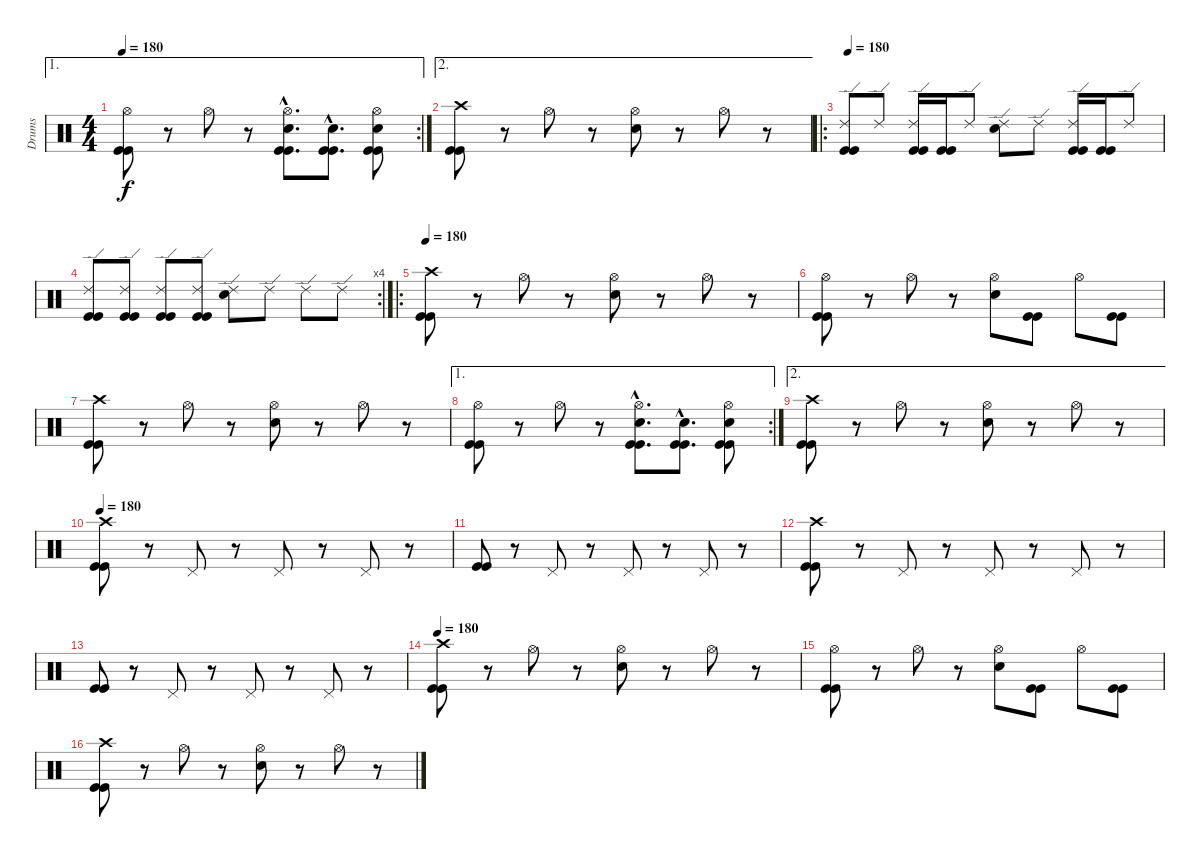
\track ("Drums" "Drums") {instrument percussion}
\staff {score}
\articulation defaults
\ae 1
\rc 2
\ts (4 4)
\tempo 180
\clef neutral
\ks c
("Hi-Hat (open)" "Kick (hit)" "Kick (hit)").8{dy f} r.8 "Hi-Hat (open)".8 r.8 ("Hi-Hat (open)"{hac} "Snare (hit) 2"{hac} "Kick (hit)"{hac} "Kick (hit)"{hac}).8{d} ("Snare (hit) 2"{hac} "Kick (hit)"{hac} "Kick (hit)"{hac}).8{d} ("Hi-Hat (open)" "Snare (hit) 2" "Kick (hit)" "Kick (hit)").8 |
\ae 2
("Crash high (hit)" "Kick (hit)" "Kick (hit)").8 r.8 "Hi-Hat (open)".8 r.8 ("Hi-Hat (open)" "Snare (hit) 2").8 r.8 "Hi-Hat (open)".8 r.8 |
\ro
\tempo 180
("Ride (edge) 2" "Kick (hit)" "Kick (hit)").8 "Ride (edge) 2".8 ("Ride (edge) 2" "Kick (hit)" "Kick (hit)").16 ("Kick (hit)" "Kick (hit)").16 "Ride (edge) 2".8 ("Ride (edge) 2" "Snare (hit) 2").8 "Ride (edge) 2".8 ("Ride (edge) 2" "Kick (hit)" "Kick (hit)").16 ("Kick (hit)" "Kick (hit)").16 "Ride (edge) 2".8 |
\rc 4
("Ride (edge) 2" "Kick (hit)" "Kick (hit)").8 ("Ride (edge) 2" "Kick (hit)" "Kick (hit)").8 ("Ride (edge) 2" "Kick (hit)" "Kick (hit)").8 ("Ride (edge) 2" "Kick (hit)" "Kick (hit)").8 ("Ride (edge) 2" "Snare (hit) 2").8 "Ride (edge) 2".8 "Ride (edge) 2".8 "Ride (edge) 2".8 |
\ro
\tempo 180
("Crash high (hit)" "Kick (hit)" "Kick (hit)").8 r.8 "Hi-Hat (open)".8 r.8 ("Hi-Hat (open)" "Snare (hit) 2").8 r.8 "Hi-Hat (open)".8 r.8 |
("Hi-Hat (open)" "Kick (hit)" "Kick (hit)").8 r.8 "Hi-Hat (open)".8 r.8 ("Hi-Hat (open)" "Snare (hit) 2").8 ("Kick (hit)" "Kick (hit)").8 "Hi-Hat (open)".8 ("Kick (hit)" "Kick (hit)").8 |
("Crash high (hit)" "Kick (hit)" "Kick (hit)").8 r.8 "Hi-Hat (open)".8 r.8 ("Hi-Hat (open)" "Snare (hit) 2").8 r.8 "Hi-Hat (open)".8 r.8 |
\ae 1
\rc 2
("Hi-Hat (open)" "Kick (hit)" "Kick (hit)").8 r.8 "Hi-Hat (open)".8 r.8 ("Hi-Hat (open)"{hac} "Snare (hit) 2"{hac} "Kick (hit)"{hac} "Kick (hit)"{hac}).8{d} ("Snare (hit) 2"{hac} "Kick (hit)"{hac} "Kick (hit)"{hac}).8{d} ("Hi-Hat (open)" "Snare (hit) 2" "Kick (hit)" "Kick (hit)").8 |
\ae 2
("Crash high (hit)" "Kick (hit)" "Kick (hit)").8 r.8 "Hi-Hat (open)".8 r.8 ("Hi-Hat (open)" "Snare (hit) 2").8 r.8 "Hi-Hat (open)".8 r.8 |
\tempo 180
("Crash high (hit)" "Kick (hit)" "Kick (hit)").8 r.8 "Pedal Hi-Hat (hit)".8 r.8 "Pedal Hi-Hat (hit)".8 r.8 "Pedal Hi-Hat (hit)".8 r.8 |
("Kick (hit)" "Kick (hit)").8 r.8 "Pedal Hi-Hat (hit)".8 r.8 "Pedal Hi-Hat (hit)".8 r.8 "Pedal Hi-Hat (hit)".8 r.8 |
("Crash high (hit)" "Kick (hit)" "Kick (hit)").8 r.8 "Pedal Hi-Hat (hit)".8 r.8 "Pedal Hi-Hat (hit)".8 r.8 "Pedal Hi-Hat (hit)".8 r.8 |
("Kick (hit)" "Kick (hit)").8 r.8 "Pedal Hi-Hat (hit)".8 r.8 "Pedal Hi-Hat (hit)".8 r.8 "Pedal Hi-Hat (hit)".8 r.8 |
\tempo 180
("Crash high (hit)" "Kick (hit)" "Kick (hit)").8 r.8 "Hi-Hat (open)".8 r.8 ("Hi-Hat (open)" "Snare (hit) 2").8 r.8 "Hi-Hat (open)".8 r.8 |
("Hi-Hat (open)" "Kick (hit)" "Kick (hit)").8 r.8 "Hi-Hat (open)".8 r.8 ("Hi-Hat (open)" "Snare (hit) 2").8 ("Kick (hit)" "Kick (hit)").8 "Hi-Hat (open)".8 ("Kick (hit)" "Kick (hit)").8 |
("Crash high (hit)" "Kick (hit)" "Kick (hit)").8 r.8 "Hi-Hat (open)".8 r.8 ("Hi-Hat (open)" "Snare (hit) 2").8 r.8 "Hi-Hat (open)".8 r.8
